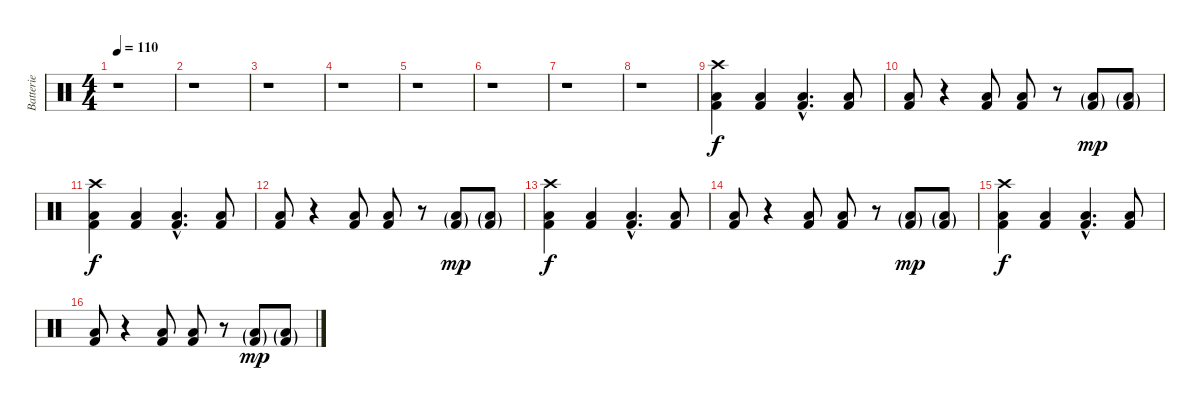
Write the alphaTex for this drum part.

\track ("Batterie" "Batterie") {instrument percussion}
\staff {score}
\articulation defaults
\ts (4 4)
\tempo 110
\clef neutral
\ks c
r.1{dy f} |
r.1 |
r.1 |
r.1 |
r.1 |
r.1 |
r.1 |
r.1 |
\section ("" "")
("Crash high (hit)" "Low Tom (hit)" "Kick (hit) 2").4 ("Low Tom (hit)" "Kick (hit) 2").4 ("Low Tom (hit)"{hac} "Kick (hit) 2"{hac}).4{d} ("Low Tom (hit)" "Kick (hit) 2").8 |
("Low Tom (hit)" "Kick (hit) 2").8 r.4 ("Low Tom (hit)" "Kick (hit) 2").8 ("Low Tom (hit)" "Kick (hit) 2").8 r.8 ("Low Tom (hit)"{g} "Kick (hit) 2"{g}).8{dy mp} ("Low Tom (hit)"{g} "Kick (hit) 2"{g}).8 |
("Crash high (hit)" "Low Tom (hit)" "Kick (hit) 2").4{dy f} ("Low Tom (hit)" "Kick (hit) 2").4 ("Low Tom (hit)"{hac} "Kick (hit) 2"{hac}).4{d} ("Low Tom (hit)" "Kick (hit) 2").8 |
("Low Tom (hit)" "Kick (hit) 2").8 r.4 ("Low Tom (hit)" "Kick (hit) 2").8 ("Low Tom (hit)" "Kick (hit) 2").8 r.8 ("Low Tom (hit)"{g} "Kick (hit) 2"{g}).8{dy mp} ("Low Tom (hit)"{g} "Kick (hit) 2"{g}).8 |
("Crash high (hit)" "Low Tom (hit)" "Kick (hit) 2").4{dy f} ("Low Tom (hit)" "Kick (hit) 2").4 ("Low Tom (hit)"{hac} "Kick (hit) 2"{hac}).4{d} ("Low Tom (hit)" "Kick (hit) 2").8 |
("Low Tom (hit)" "Kick (hit) 2").8 r.4 ("Low Tom (hit)" "Kick (hit) 2").8 ("Low Tom (hit)" "Kick (hit) 2").8 r.8 ("Low Tom (hit)"{g} "Kick (hit) 2"{g}).8{dy mp} ("Low Tom (hit)"{g} "Kick (hit) 2"{g}).8 |
("Crash high (hit)" "Low Tom (hit)" "Kick (hit) 2").4{dy f} ("Low Tom (hit)" "Kick (hit) 2").4 ("Low Tom (hit)"{hac} "Kick (hit) 2"{hac}).4{d} ("Low Tom (hit)" "Kick (hit) 2").8 |
("Low Tom (hit)" "Kick (hit) 2").8 r.4 ("Low Tom (hit)" "Kick (hit) 2").8 ("Low Tom (hit)" "Kick (hit) 2").8 r.8 ("Low Tom (hit)"{g} "Kick (hit) 2"{g}).8{dy mp} ("Low Tom (hit)"{g} "Kick (hit) 2"{g}).8
